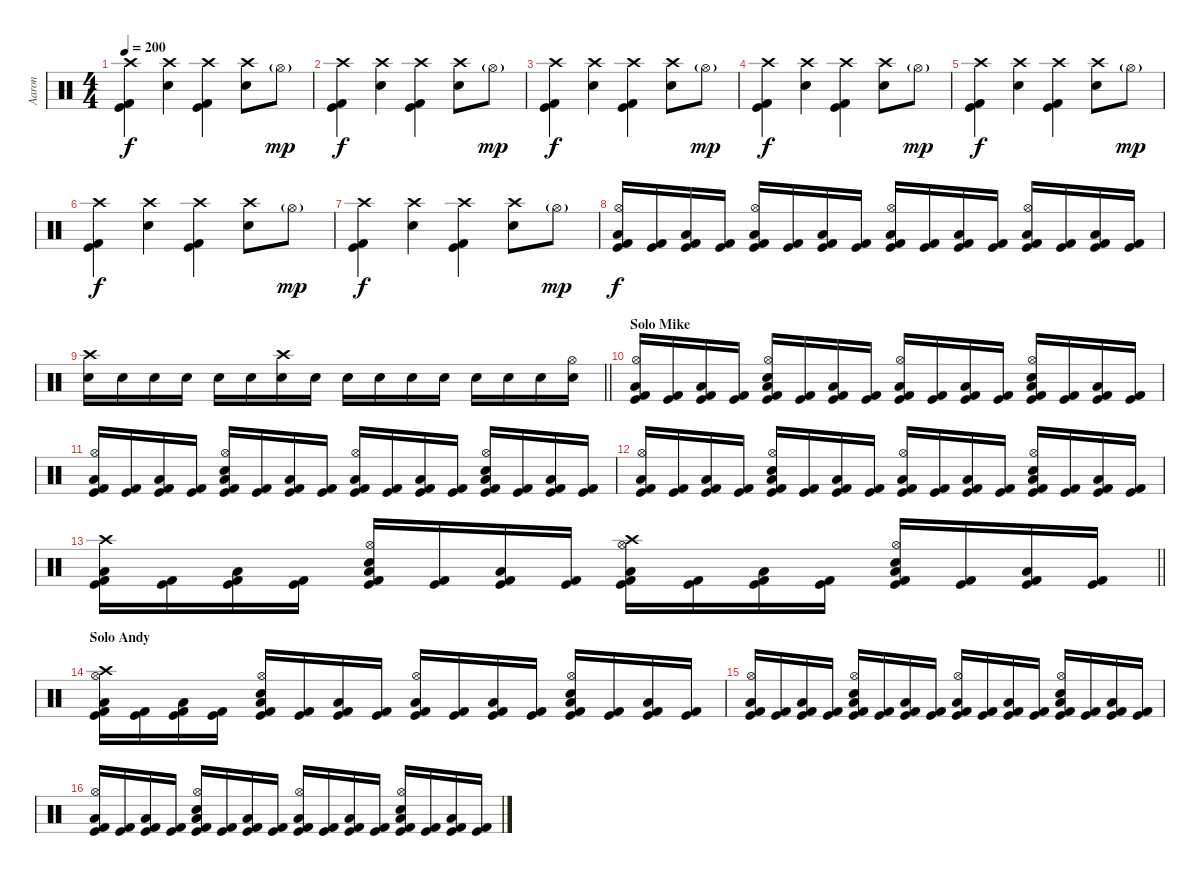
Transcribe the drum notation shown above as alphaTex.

\track ("Aaron" "Aaron") {instrument percussion}
\staff {score}
\articulation defaults
\ts (4 4)
\tempo 200
\clef neutral
\ks c
("Crash high (hit)" "Kick (hit)" "Kick (hit) 2").4{dy f} ("Crash high (hit)" "Snare (hit) 2").4 ("Crash high (hit)" "Kick (hit)" "Kick (hit) 2").4 ("Crash high (hit)" "Snare (hit) 2").8 "Hi-Hat (open)"{g}.8{dy mp} |
("Crash high (hit)" "Kick (hit)" "Kick (hit) 2").4{dy f} ("Crash high (hit)" "Snare (hit) 2").4 ("Crash high (hit)" "Kick (hit)" "Kick (hit) 2").4 ("Crash high (hit)" "Snare (hit) 2").8 "Hi-Hat (open)"{g}.8{dy mp} |
("Crash high (hit)" "Kick (hit)" "Kick (hit) 2").4{dy f} ("Crash high (hit)" "Snare (hit) 2").4 ("Crash high (hit)" "Kick (hit)" "Kick (hit) 2").4 ("Crash high (hit)" "Snare (hit) 2").8 "Hi-Hat (open)"{g}.8{dy mp} |
("Crash high (hit)" "Kick (hit)" "Kick (hit) 2").4{dy f} ("Crash high (hit)" "Snare (hit) 2").4 ("Crash high (hit)" "Kick (hit)" "Kick (hit) 2").4 ("Crash high (hit)" "Snare (hit) 2").8 "Hi-Hat (open)"{g}.8{dy mp} |
("Crash high (hit)" "Kick (hit)" "Kick (hit) 2").4{dy f} ("Crash high (hit)" "Snare (hit) 2").4 ("Crash high (hit)" "Kick (hit)" "Kick (hit) 2").4 ("Crash high (hit)" "Snare (hit) 2").8 "Hi-Hat (open)"{g}.8{dy mp} |
("Crash high (hit)" "Kick (hit)" "Kick (hit) 2").4{dy f} ("Crash high (hit)" "Snare (hit) 2").4 ("Crash high (hit)" "Kick (hit)" "Kick (hit) 2").4 ("Crash high (hit)" "Snare (hit) 2").8 "Hi-Hat (open)"{g}.8{dy mp} |
("Crash high (hit)" "Kick (hit)" "Kick (hit) 2").4{dy f} ("Crash high (hit)" "Snare (hit) 2").4 ("Crash high (hit)" "Kick (hit)" "Kick (hit) 2").4 ("Crash high (hit)" "Snare (hit) 2").8 "Hi-Hat (open)"{g}.8{dy mp} |
("Hi-Hat (open)" "Low Floor Tom (hit)" "Kick (hit) 2" "Kick (hit)").16{dy f} ("Kick (hit) 2" "Kick (hit)").16 ("Low Floor Tom (hit)" "Kick (hit) 2" "Kick (hit)").16 ("Kick (hit) 2" "Kick (hit)").16 ("Hi-Hat (open)" "Low Floor Tom (hit)" "Kick (hit) 2" "Kick (hit)").16 ("Kick (hit) 2" "Kick (hit)").16 ("Low Floor Tom (hit)" "Kick (hit) 2" "Kick (hit)").16 ("Kick (hit) 2" "Kick (hit)").16 ("Hi-Hat (open)" "Low Floor Tom (hit)" "Kick (hit) 2" "Kick (hit)").16 ("Kick (hit) 2" "Kick (hit)").16 ("Low Floor Tom (hit)" "Kick (hit) 2" "Kick (hit)").16 ("Kick (hit) 2" "Kick (hit)").16 ("Hi-Hat (open)" "Low Floor Tom (hit)" "Kick (hit) 2" "Kick (hit)").16 ("Kick (hit) 2" "Kick (hit)").16 ("Low Floor Tom (hit)" "Kick (hit) 2" "Kick (hit)").16 ("Kick (hit) 2" "Kick (hit)").16 |
\barLineRight lightlight
("Crash high (hit)" "Snare (hit) 2").16 "Snare (hit) 2".16 "Snare (hit) 2".16 "Snare (hit) 2".16 "Snare (hit) 2".16 "Snare (hit) 2".16 ("Crash high (hit)" "Snare (hit) 2").16 "Snare (hit) 2".16 "Snare (hit) 2".16 "Snare (hit) 2".16 "Snare (hit) 2".16 "Snare (hit) 2".16 "Snare (hit) 2".16 "Snare (hit) 2".16 "Snare (hit) 2".16 ("Hi-Hat (open)" "Snare (hit) 2").16 |
\section ("" "Solo Mike")
("Hi-Hat (open)" "Low Floor Tom (hit)" "Kick (hit) 2" "Kick (hit)").16 ("Kick (hit) 2" "Kick (hit)").16 ("Low Floor Tom (hit)" "Kick (hit) 2" "Kick (hit)").16 ("Kick (hit) 2" "Kick (hit)").16 ("Hi-Hat (open)" "Electric Snare (hit)" "Low Floor Tom (hit)" "Kick (hit) 2" "Kick (hit)").16 ("Kick (hit) 2" "Kick (hit)").16 ("Low Floor Tom (hit)" "Kick (hit) 2" "Kick (hit)").16 ("Kick (hit) 2" "Kick (hit)").16 ("Hi-Hat (open)" "Low Floor Tom (hit)" "Kick (hit) 2" "Kick (hit)").16 ("Kick (hit) 2" "Kick (hit)").16 ("Low Floor Tom (hit)" "Kick (hit) 2" "Kick (hit)").16 ("Kick (hit) 2" "Kick (hit)").16 ("Hi-Hat (open)" "Electric Snare (hit)" "Low Floor Tom (hit)" "Kick (hit) 2" "Kick (hit)").16 ("Kick (hit) 2" "Kick (hit)").16 ("Low Floor Tom (hit)" "Kick (hit) 2" "Kick (hit)").16 ("Kick (hit) 2" "Kick (hit)").16 |
("Hi-Hat (open)" "Low Floor Tom (hit)" "Kick (hit) 2" "Kick (hit)").16 ("Kick (hit) 2" "Kick (hit)").16 ("Low Floor Tom (hit)" "Kick (hit) 2" "Kick (hit)").16 ("Kick (hit) 2" "Kick (hit)").16 ("Hi-Hat (open)" "Electric Snare (hit)" "Low Floor Tom (hit)" "Kick (hit) 2" "Kick (hit)").16 ("Kick (hit) 2" "Kick (hit)").16 ("Low Floor Tom (hit)" "Kick (hit) 2" "Kick (hit)").16 ("Kick (hit) 2" "Kick (hit)").16 ("Hi-Hat (open)" "Low Floor Tom (hit)" "Kick (hit) 2" "Kick (hit)").16 ("Kick (hit) 2" "Kick (hit)").16 ("Low Floor Tom (hit)" "Kick (hit) 2" "Kick (hit)").16 ("Kick (hit) 2" "Kick (hit)").16 ("Hi-Hat (open)" "Electric Snare (hit)" "Low Floor Tom (hit)" "Kick (hit) 2" "Kick (hit)").16 ("Kick (hit) 2" "Kick (hit)").16 ("Low Floor Tom (hit)" "Kick (hit) 2" "Kick (hit)").16 ("Kick (hit) 2" "Kick (hit)").16 |
("Hi-Hat (open)" "Low Floor Tom (hit)" "Kick (hit) 2" "Kick (hit)").16 ("Kick (hit) 2" "Kick (hit)").16 ("Low Floor Tom (hit)" "Kick (hit) 2" "Kick (hit)").16 ("Kick (hit) 2" "Kick (hit)").16 ("Hi-Hat (open)" "Electric Snare (hit)" "Low Floor Tom (hit)" "Kick (hit) 2" "Kick (hit)").16 ("Kick (hit) 2" "Kick (hit)").16 ("Low Floor Tom (hit)" "Kick (hit) 2" "Kick (hit)").16 ("Kick (hit) 2" "Kick (hit)").16 ("Hi-Hat (open)" "Low Floor Tom (hit)" "Kick (hit) 2" "Kick (hit)").16 ("Kick (hit) 2" "Kick (hit)").16 ("Low Floor Tom (hit)" "Kick (hit) 2" "Kick (hit)").16 ("Kick (hit) 2" "Kick (hit)").16 ("Hi-Hat (open)" "Electric Snare (hit)" "Low Floor Tom (hit)" "Kick (hit) 2" "Kick (hit)").16 ("Kick (hit) 2" "Kick (hit)").16 ("Low Floor Tom (hit)" "Kick (hit) 2" "Kick (hit)").16 ("Kick (hit) 2" "Kick (hit)").16 |
\barLineRight lightlight
("Crash high (hit)" "Low Floor Tom (hit)" "Kick (hit) 2" "Kick (hit)").16 ("Kick (hit) 2" "Kick (hit)").16 ("Low Floor Tom (hit)" "Kick (hit) 2" "Kick (hit)").16 ("Kick (hit) 2" "Kick (hit)").16 ("Hi-Hat (open)" "Electric Snare (hit)" "Low Floor Tom (hit)" "Kick (hit) 2" "Kick (hit)").16 ("Kick (hit) 2" "Kick (hit)").16 ("Low Floor Tom (hit)" "Kick (hit) 2" "Kick (hit)").16 ("Kick (hit) 2" "Kick (hit)").16 ("Hi-Hat (open)" "Crash high (hit)" "Low Floor Tom (hit)" "Kick (hit) 2" "Kick (hit)").16 ("Kick (hit) 2" "Kick (hit)").16 ("Low Floor Tom (hit)" "Kick (hit) 2" "Kick (hit)").16 ("Kick (hit) 2" "Kick (hit)").16 ("Hi-Hat (open)" "Electric Snare (hit)" "Low Floor Tom (hit)" "Kick (hit) 2" "Kick (hit)").16 ("Kick (hit) 2" "Kick (hit)").16 ("Low Floor Tom (hit)" "Kick (hit) 2" "Kick (hit)").16 ("Kick (hit) 2" "Kick (hit)").16 |
\section ("" "Solo Andy")
("Hi-Hat (open)" "Crash high (hit)" "Low Floor Tom (hit)" "Kick (hit) 2" "Kick (hit)").16 ("Kick (hit) 2" "Kick (hit)").16 ("Low Floor Tom (hit)" "Kick (hit) 2" "Kick (hit)").16 ("Kick (hit) 2" "Kick (hit)").16 ("Hi-Hat (open)" "Electric Snare (hit)" "Low Floor Tom (hit)" "Kick (hit) 2" "Kick (hit)").16 ("Kick (hit) 2" "Kick (hit)").16 ("Low Floor Tom (hit)" "Kick (hit) 2" "Kick (hit)").16 ("Kick (hit) 2" "Kick (hit)").16 ("Hi-Hat (open)" "Low Floor Tom (hit)" "Kick (hit) 2" "Kick (hit)").16 ("Kick (hit) 2" "Kick (hit)").16 ("Low Floor Tom (hit)" "Kick (hit) 2" "Kick (hit)").16 ("Kick (hit) 2" "Kick (hit)").16 ("Hi-Hat (open)" "Electric Snare (hit)" "Low Floor Tom (hit)" "Kick (hit) 2" "Kick (hit)").16 ("Kick (hit) 2" "Kick (hit)").16 ("Low Floor Tom (hit)" "Kick (hit) 2" "Kick (hit)").16 ("Kick (hit) 2" "Kick (hit)").16 |
("Hi-Hat (open)" "Low Floor Tom (hit)" "Kick (hit) 2" "Kick (hit)").16 ("Kick (hit) 2" "Kick (hit)").16 ("Low Floor Tom (hit)" "Kick (hit) 2" "Kick (hit)").16 ("Kick (hit) 2" "Kick (hit)").16 ("Hi-Hat (open)" "Electric Snare (hit)" "Low Floor Tom (hit)" "Kick (hit) 2" "Kick (hit)").16 ("Kick (hit) 2" "Kick (hit)").16 ("Low Floor Tom (hit)" "Kick (hit) 2" "Kick (hit)").16 ("Kick (hit) 2" "Kick (hit)").16 ("Hi-Hat (open)" "Low Floor Tom (hit)" "Kick (hit) 2" "Kick (hit)").16 ("Kick (hit) 2" "Kick (hit)").16 ("Low Floor Tom (hit)" "Kick (hit) 2" "Kick (hit)").16 ("Kick (hit) 2" "Kick (hit)").16 ("Hi-Hat (open)" "Electric Snare (hit)" "Low Floor Tom (hit)" "Kick (hit) 2" "Kick (hit)").16 ("Kick (hit) 2" "Kick (hit)").16 ("Low Floor Tom (hit)" "Kick (hit) 2" "Kick (hit)").16 ("Kick (hit) 2" "Kick (hit)").16 |
("Hi-Hat (open)" "Low Floor Tom (hit)" "Kick (hit) 2" "Kick (hit)").16 ("Kick (hit) 2" "Kick (hit)").16 ("Low Floor Tom (hit)" "Kick (hit) 2" "Kick (hit)").16 ("Kick (hit) 2" "Kick (hit)").16 ("Hi-Hat (open)" "Electric Snare (hit)" "Low Floor Tom (hit)" "Kick (hit) 2" "Kick (hit)").16 ("Kick (hit) 2" "Kick (hit)").16 ("Low Floor Tom (hit)" "Kick (hit) 2" "Kick (hit)").16 ("Kick (hit) 2" "Kick (hit)").16 ("Hi-Hat (open)" "Low Floor Tom (hit)" "Kick (hit) 2" "Kick (hit)").16 ("Kick (hit) 2" "Kick (hit)").16 ("Low Floor Tom (hit)" "Kick (hit) 2" "Kick (hit)").16 ("Kick (hit) 2" "Kick (hit)").16 ("Hi-Hat (open)" "Electric Snare (hit)" "Low Floor Tom (hit)" "Kick (hit) 2" "Kick (hit)").16 ("Kick (hit) 2" "Kick (hit)").16 ("Low Floor Tom (hit)" "Kick (hit) 2" "Kick (hit)").16 ("Kick (hit) 2" "Kick (hit)").16
